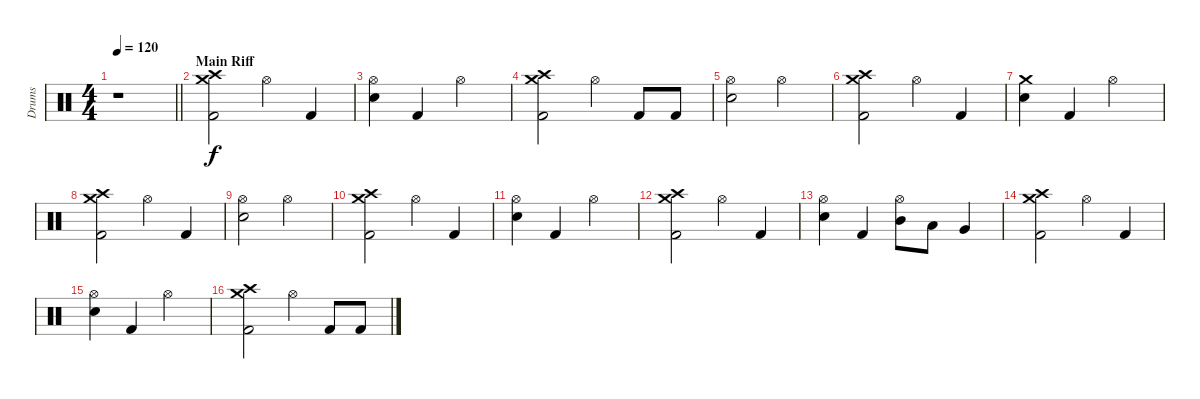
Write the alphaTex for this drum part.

\track ("Drums" "Drums") {instrument percussion}
\staff {score}
\articulation defaults
\ts (4 4)
\tempo 120
\clef neutral
\barLineRight lightlight
\ks c
r.1{dy f} |
\section ("" "Main Riff")
("Crash high (hit)" "Crash medium (hit)" "Kick (hit) 2").2 "Hi-Hat (open)".4 "Kick (hit) 2".4 |
("Hi-Hat (open)" "Snare (hit) 2").4 "Kick (hit) 2".4 "Hi-Hat (open)".2 |
("Crash high (hit)" "Crash medium (hit)" "Kick (hit) 2").2 "Hi-Hat (open)".4 "Kick (hit) 2".8 "Kick (hit) 2".8 |
("Hi-Hat (open)" "Snare (hit) 2").2 "Hi-Hat (open)".2 |
("Crash high (hit)" "Crash medium (hit)" "Kick (hit) 2").2 "Hi-Hat (open)".4 "Kick (hit) 2".4 |
("Crash medium (hit)" "Snare (hit) 2").4 "Kick (hit) 2".4 "Hi-Hat (open)".2 |
("Crash high (hit)" "Crash medium (hit)" "Kick (hit) 2").2 "Hi-Hat (open)".4 "Kick (hit) 2".4 |
("Hi-Hat (open)" "Snare (hit) 2").2 "Hi-Hat (open)".2 |
("Crash high (hit)" "Crash medium (hit)" "Kick (hit) 2").2 "Hi-Hat (open)".4 "Kick (hit) 2".4 |
("Hi-Hat (open)" "Snare (hit) 2").4 "Kick (hit) 2".4 "Hi-Hat (open)".2 |
("Crash high (hit)" "Crash medium (hit)" "Kick (hit) 2").2 "Hi-Hat (open)".4 "Kick (hit) 2".4 |
("Hi-Hat (open)" "Snare (hit) 2").4 "Kick (hit) 2".4 ("Hi-Hat (open)" "Mid Tom (hit)").8 "Low Tom (hit)".8 "Very Low Tom (hit)".4 |
("Crash high (hit)" "Crash medium (hit)" "Kick (hit) 2").2 "Hi-Hat (open)".4 "Kick (hit) 2".4 |
("Hi-Hat (open)" "Snare (hit) 2").4 "Kick (hit) 2".4 "Hi-Hat (open)".2 |
("Crash high (hit)" "Crash medium (hit)" "Kick (hit) 2").2 "Hi-Hat (open)".4 "Kick (hit) 2".8 "Kick (hit) 2".8
